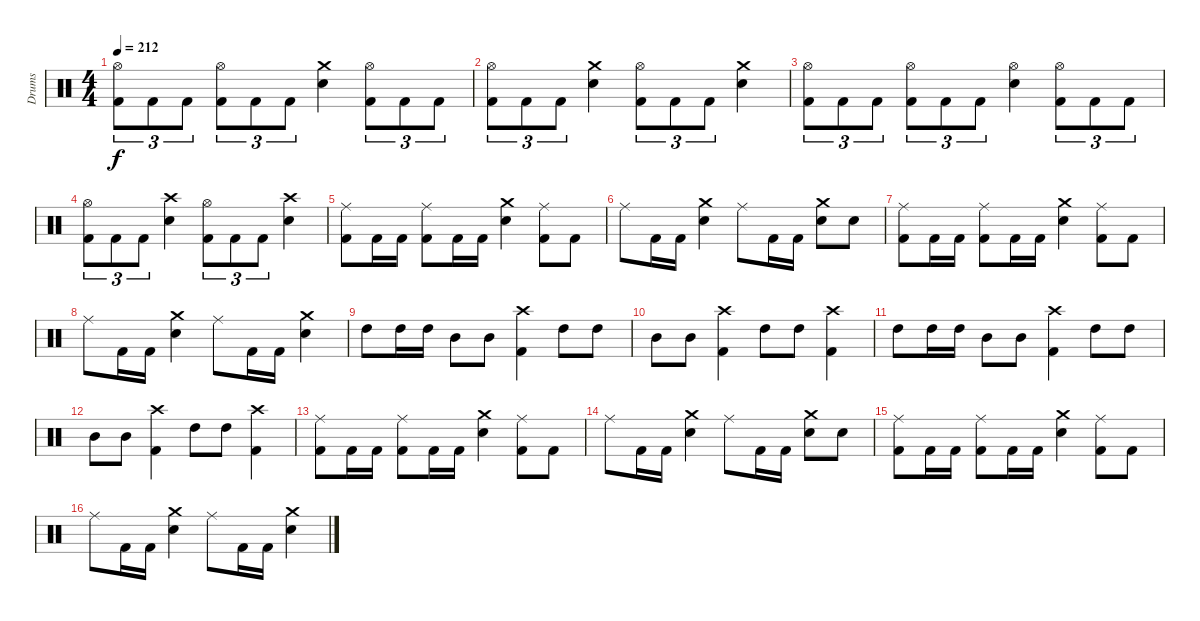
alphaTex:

\track ("Drums" "Drums") {instrument percussion}
\staff {score}
\articulation defaults
\ts (4 4)
\tempo 212
\clef neutral
\ks c
("Kick (hit) 2" "Hi-Hat (open)").8{tu (3 2) dy f} "Kick (hit) 2".8{tu (3 2)} "Kick (hit) 2".8{tu (3 2)} ("Kick (hit) 2" "Hi-Hat (open)").8{tu (3 2)} "Kick (hit) 2".8{tu (3 2)} "Kick (hit) 2".8{tu (3 2)} ("Snare (hit) 2" "Crash medium (hit)").4 ("Kick (hit) 2" "Hi-Hat (open)").8{tu (3 2)} "Kick (hit) 2".8{tu (3 2)} "Kick (hit) 2".8{tu (3 2)} |
("Kick (hit) 2" "Hi-Hat (open)").8{tu (3 2)} "Kick (hit) 2".8{tu (3 2)} "Kick (hit) 2".8{tu (3 2)} ("Snare (hit) 2" "Crash medium (hit)").4 ("Kick (hit) 2" "Hi-Hat (open)").8{tu (3 2)} "Kick (hit) 2".8{tu (3 2)} "Kick (hit) 2".8{tu (3 2)} ("Snare (hit) 2" "Crash medium (hit)").4 |
("Kick (hit) 2" "Hi-Hat (open)").8{tu (3 2)} "Kick (hit) 2".8{tu (3 2)} "Kick (hit) 2".8{tu (3 2)} ("Kick (hit) 2" "Hi-Hat (open)").8{tu (3 2)} "Kick (hit) 2".8{tu (3 2)} "Kick (hit) 2".8{tu (3 2)} ("Snare (hit) 2" "Hi-Hat (open)").4 ("Kick (hit) 2" "Hi-Hat (open)").8{tu (3 2)} "Kick (hit) 2".8{tu (3 2)} "Kick (hit) 2".8{tu (3 2)} |
("Kick (hit) 2" "Hi-Hat (open)").8{tu (3 2)} "Kick (hit) 2".8{tu (3 2)} "Kick (hit) 2".8{tu (3 2)} ("Snare (hit) 2" "Crash high (hit)").4 ("Kick (hit) 2" "Hi-Hat (open)").8{tu (3 2)} "Kick (hit) 2".8{tu (3 2)} "Kick (hit) 2".8{tu (3 2)} ("Snare (hit) 2" "Crash high (hit)").4 |
("Kick (hit) 2" "Ride (middle)").8 "Kick (hit) 2".16 "Kick (hit) 2".16 ("Kick (hit) 2" "Ride (middle)").8 "Kick (hit) 2".16 "Kick (hit) 2".16 ("Snare (hit) 2" "Crash medium (hit)").4 ("Kick (hit) 2" "Ride (middle)").8 "Kick (hit) 2".8 |
"Ride (middle)".8 "Kick (hit) 2".16 "Kick (hit) 2".16 ("Snare (hit) 2" "Crash medium (hit)").4 "Ride (middle)".8 "Kick (hit) 2".16 "Kick (hit) 2".16 ("Snare (hit) 2" "Crash medium (hit)").8 "Snare (hit) 2".8 |
("Kick (hit) 2" "Ride (middle)").8 "Kick (hit) 2".16 "Kick (hit) 2".16 ("Kick (hit) 2" "Ride (middle)").8 "Kick (hit) 2".16 "Kick (hit) 2".16 ("Snare (hit) 2" "Crash medium (hit)").4 ("Kick (hit) 2" "Ride (middle)").8 "Kick (hit) 2".8 |
"Ride (middle)".8 "Kick (hit) 2".16 "Kick (hit) 2".16 ("Snare (hit) 2" "Crash medium (hit)").4 "Ride (middle)".8 "Kick (hit) 2".16 "Kick (hit) 2".16 ("Snare (hit) 2" "Crash medium (hit)").4 |
"High Tom (hit)".8 "High Tom (hit)".16 "High Tom (hit)".16 "Mid Tom (hit)".8 "Mid Tom (hit)".8 ("Crash high (hit)" "Kick (hit) 2").4 "High Tom (hit)".8 "High Tom (hit)".8 |
"Mid Tom (hit)".8 "Mid Tom (hit)".8 ("Crash high (hit)" "Kick (hit) 2").4 "High Tom (hit)".8 "High Tom (hit)".8 ("Crash high (hit)" "Kick (hit) 2").4 |
"High Tom (hit)".8 "High Tom (hit)".16 "High Tom (hit)".16 "Mid Tom (hit)".8 "Mid Tom (hit)".8 ("Crash high (hit)" "Kick (hit) 2").4 "High Tom (hit)".8 "High Tom (hit)".8 |
"Mid Tom (hit)".8 "Mid Tom (hit)".8 ("Crash high (hit)" "Kick (hit) 2").4 "High Tom (hit)".8 "High Tom (hit)".8 ("Crash high (hit)" "Kick (hit) 2").4 |
("Kick (hit) 2" "Ride (middle)").8 "Kick (hit) 2".16 "Kick (hit) 2".16 ("Kick (hit) 2" "Ride (middle)").8 "Kick (hit) 2".16 "Kick (hit) 2".16 ("Snare (hit) 2" "Crash medium (hit)").4 ("Kick (hit) 2" "Ride (middle)").8 "Kick (hit) 2".8 |
"Ride (middle)".8 "Kick (hit) 2".16 "Kick (hit) 2".16 ("Snare (hit) 2" "Crash medium (hit)").4 "Ride (middle)".8 "Kick (hit) 2".16 "Kick (hit) 2".16 ("Snare (hit) 2" "Crash medium (hit)").8 "Snare (hit) 2".8 |
("Kick (hit) 2" "Ride (middle)").8 "Kick (hit) 2".16 "Kick (hit) 2".16 ("Kick (hit) 2" "Ride (middle)").8 "Kick (hit) 2".16 "Kick (hit) 2".16 ("Snare (hit) 2" "Crash medium (hit)").4 ("Kick (hit) 2" "Ride (middle)").8 "Kick (hit) 2".8 |
"Ride (middle)".8 "Kick (hit) 2".16 "Kick (hit) 2".16 ("Snare (hit) 2" "Crash medium (hit)").4 "Ride (middle)".8 "Kick (hit) 2".16 "Kick (hit) 2".16 ("Snare (hit) 2" "Crash medium (hit)").4
